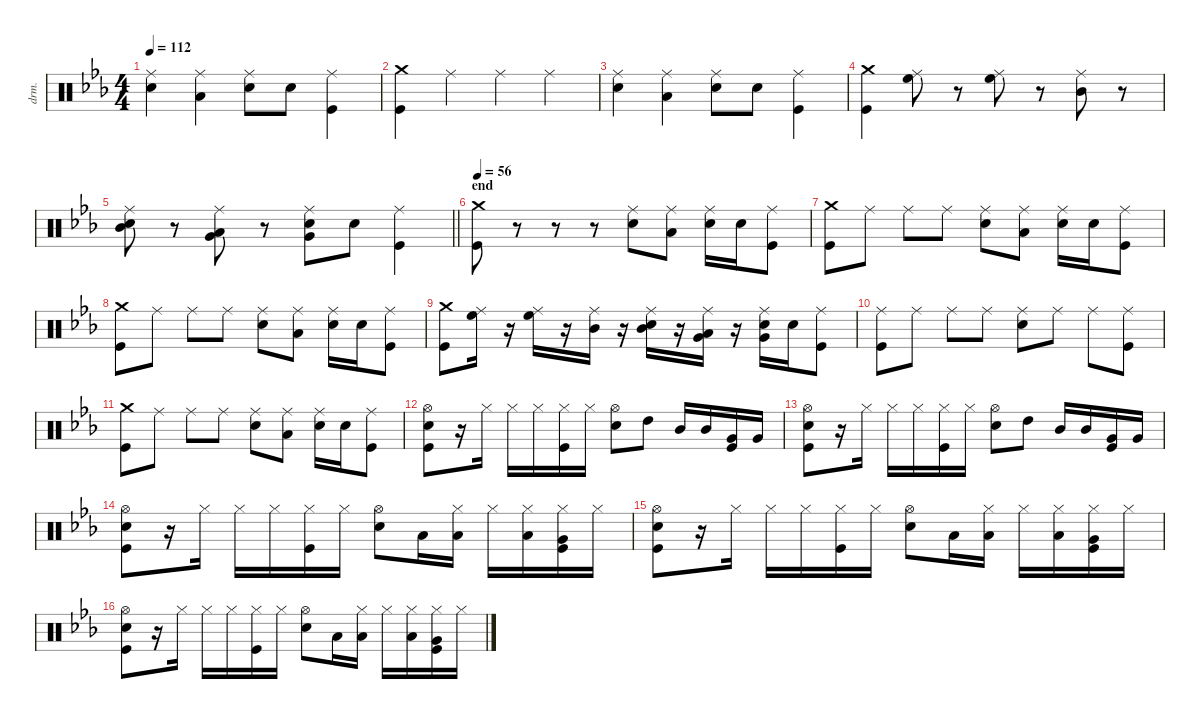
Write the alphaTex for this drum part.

\defaultSystemsLayout 4
\hideDynamics
\bracketExtendMode nobrackets
\otherSystemsTrackNameOrientation horizontal
\track ("Percussion" "drm.") {instrument percussion}
\staff {score}
\articulation defaults
\ts (4 4)
\tempo 112
\clef neutral
\ks cminor
("Snare (hit) 2"{acc forcenatural} "Ride (middle)"{acc forcenatural}).4{dy f beam Down} ("Low Floor Tom (hit)"{acc forcenatural} "Ride (middle)"{acc forcenatural}).4{beam Down} ("Snare (hit) 2"{acc forcenatural} "Ride (middle)"{acc forcenatural}).8{beam Down} "Snare (hit) 2"{acc forcenatural}.8{beam Down} ("Kick (hit)"{acc forcenatural} "Ride (middle)"{acc forcenatural}).4{beam Down} |
("Crash medium (hit)"{acc forcenatural} "Kick (hit)"{acc forcenatural}).4{beam Down} "Ride (middle)"{acc forcenatural}.4{beam Down} "Ride (middle)"{acc forcenatural}.4{beam Down} "Ride (middle)"{acc forcenatural}.4{beam Down} |
("Snare (hit) 2"{acc forcenatural} "Ride (middle)"{acc forcenatural}).4{beam Down} ("Low Floor Tom (hit)"{acc forcenatural} "Ride (middle)"{acc forcenatural}).4{beam Down} ("Snare (hit) 2"{acc forcenatural} "Ride (middle)"{acc forcenatural}).8{beam Down} "Snare (hit) 2"{acc forcenatural}.8{beam Down} ("Kick (hit)"{acc forcenatural} "Ride (middle)"{acc forcenatural}).4{beam Down} |
("Crash medium (hit)"{acc forcenatural} "Kick (hit)"{acc forcenatural}).4{beam Down} ("High Floor Tom (hit)"{acc forcenatural} "Ride (middle)"{acc forcenatural}).8{beam Down} r.8{beam Down} ("High Floor Tom (hit)"{acc forcenatural} "Ride (middle)"{acc forcenatural}).8{beam Down} r.8{beam Down} ("Mid Tom (hit)"{acc forcenatural} "Ride (middle)"{acc forcenatural}).8{beam Down} r.8{beam Down} |
\barLineRight lightlight
("Mid Tom (hit)"{acc forcenatural} "Snare (hit) 2"{acc forcenatural} "Ride (middle)"{acc forcenatural}).8{beam Down} r.8{beam Down} ("Very Low Tom (hit)"{acc forcenatural} "Low Floor Tom (hit)"{acc forcenatural} "Ride (middle)"{acc forcenatural}).8{beam Down} r.8{beam Down} ("Very Low Tom (hit)"{acc forcenatural} "Snare (hit) 2"{acc forcenatural} "Ride (middle)"{acc forcenatural}).8{beam Down} "Snare (hit) 2"{acc forcenatural}.8{beam Down} ("Kick (hit)"{acc forcenatural} "Ride (middle)"{acc forcenatural}).4{beam Down} |
\section ("" "end")
\tempo 56
("Crash medium (hit)"{acc forcenatural} "Kick (hit)"{acc forcenatural}).8{beam Down} r.8{beam Down} r.8{beam Down} r.8{beam Down} ("Snare (hit) 2"{acc forcenatural} "Ride (middle)"{acc forcenatural}).8{beam Down} ("Low Floor Tom (hit)"{acc forcenatural} "Ride (middle)"{acc forcenatural}).8{beam Down} ("Snare (hit) 2"{acc forcenatural} "Ride (middle)"{acc forcenatural}).16{beam Down} "Snare (hit) 2"{acc forcenatural}.16{beam Down} ("Kick (hit)"{acc forcenatural} "Ride (middle)"{acc forcenatural}).8{beam Down} |
("Crash medium (hit)"{acc forcenatural} "Kick (hit)"{acc forcenatural}).8{beam Down} "Ride (middle)"{acc forcenatural}.8{beam Down} "Ride (middle)"{acc forcenatural}.8{beam Down} "Ride (middle)"{acc forcenatural}.8{beam Down} ("Snare (hit) 2"{acc forcenatural} "Ride (middle)"{acc forcenatural}).8{beam Down} ("Low Floor Tom (hit)"{acc forcenatural} "Ride (middle)"{acc forcenatural}).8{beam Down} ("Snare (hit) 2"{acc forcenatural} "Ride (middle)"{acc forcenatural}).16{beam Down} "Snare (hit) 2"{acc forcenatural}.16{beam Down} ("Kick (hit)"{acc forcenatural} "Ride (middle)"{acc forcenatural}).8{beam Down} |
("Crash medium (hit)"{acc forcenatural} "Kick (hit)"{acc forcenatural}).8{beam Down} "Ride (middle)"{acc forcenatural}.8{beam Down} "Ride (middle)"{acc forcenatural}.8{beam Down} "Ride (middle)"{acc forcenatural}.8{beam Down} ("Snare (hit) 2"{acc forcenatural} "Ride (middle)"{acc forcenatural}).8{beam Down} ("Low Floor Tom (hit)"{acc forcenatural} "Ride (middle)"{acc forcenatural}).8{beam Down} ("Snare (hit) 2"{acc forcenatural} "Ride (middle)"{acc forcenatural}).16{beam Down} "Snare (hit) 2"{acc forcenatural}.16{beam Down} ("Kick (hit)"{acc forcenatural} "Ride (middle)"{acc forcenatural}).8{beam Down} |
("Crash medium (hit)"{acc forcenatural} "Kick (hit)"{acc forcenatural}).8{beam Down} ("High Floor Tom (hit)"{acc forcenatural} "Ride (middle)"{acc forcenatural}).16{beam Down} r.16{beam Down} ("High Floor Tom (hit)"{acc forcenatural} "Ride (middle)"{acc forcenatural}).16{beam Down} r.16{beam Down} ("Mid Tom (hit)"{acc forcenatural} "Ride (middle)"{acc forcenatural}).16{beam Down} r.16{beam Down} ("Mid Tom (hit)"{acc forcenatural} "Snare (hit) 2"{acc forcenatural} "Ride (middle)"{acc forcenatural}).16{beam Down} r.16{beam Down} ("Very Low Tom (hit)"{acc forcenatural} "Low Floor Tom (hit)"{acc forcenatural} "Ride (middle)"{acc forcenatural}).16{beam Down} r.16{beam Down} ("Very Low Tom (hit)"{acc forcenatural} "Snare (hit) 2"{acc forcenatural} "Ride (middle)"{acc forcenatural}).16{beam Down} "Snare (hit) 2"{acc forcenatural}.16{beam Down} ("Kick (hit)"{acc forcenatural} "Ride (middle)"{acc forcenatural}).8{beam Down} |
\ks eb
("Ride (middle)"{acc forcenatural} "Kick (hit)"{acc forcenatural}).8{beam Down} "Ride (middle)"{acc forcenatural}.8{beam Down} "Ride (middle)"{acc forcenatural}.8{beam Down} "Ride (middle)"{acc forcenatural}.8{beam Down} ("Snare (hit) 2"{acc forcenatural} "Ride (middle)"{acc forcenatural}).8{beam Down} "Ride (middle)"{acc forcenatural}.8{beam Down} "Ride (middle)"{acc forcenatural}.8{beam Down} ("Kick (hit)"{acc forcenatural} "Ride (middle)"{acc forcenatural}).8{beam Down} |
("Crash medium (hit)"{acc forcenatural} "Kick (hit)"{acc forcenatural}).8{beam Down} "Ride (middle)"{acc forcenatural}.8{beam Down} "Ride (middle)"{acc forcenatural}.8{beam Down} "Ride (middle)"{acc forcenatural}.8{beam Down} ("Snare (hit) 2"{acc forcenatural} "Ride (middle)"{acc forcenatural}).8{beam Down} ("Low Floor Tom (hit)"{acc forcenatural} "Ride (middle)"{acc forcenatural}).8{beam Down} ("Snare (hit) 2"{acc forcenatural} "Ride (middle)"{acc forcenatural}).16{beam Down} "Snare (hit) 2"{acc forcenatural}.16{beam Down} ("Kick (hit)"{acc forcenatural} "Ride (middle)"{acc forcenatural}).8{beam Down} |
("Hi-Hat (open)"{acc forcenatural} "Kick (hit)"{acc forcenatural} "Snare (hit) 2"{acc forcenatural}).8{beam Down} r.16{beam Down} "Hi-Hat (closed)"{acc forcenatural}.16{beam Down} "Hi-Hat (closed)"{acc forcenatural}.16{beam Down} "Hi-Hat (closed)"{acc forcenatural}.16{beam Down} ("Kick (hit)"{acc forcenatural} "Hi-Hat (closed)"{acc forcenatural}).16{beam Down} "Hi-Hat (closed)"{acc forcenatural}.16{beam Down} ("Snare (hit) 2"{acc forcenatural} "Hi-Hat (open)"{acc forcenatural}).8{beam Down} "High Tom (hit)"{acc forcenatural}.8{beam Down} "Mid Tom (hit)"{acc forcenatural}.16{beam Up} "Mid Tom (hit)"{acc forcenatural}.16{beam Up} ("Very Low Tom (hit)"{acc forcenatural} "Kick (hit)"{acc forcenatural}).16{beam Up} "Very Low Tom (hit)"{acc forcenatural}.16{beam Up} |
("Hi-Hat (open)"{acc forcenatural} "Kick (hit)"{acc forcenatural} "Snare (hit) 2"{acc forcenatural}).8{beam Down} r.16{beam Down} "Hi-Hat (closed)"{acc forcenatural}.16{beam Down} "Hi-Hat (closed)"{acc forcenatural}.16{beam Down} "Hi-Hat (closed)"{acc forcenatural}.16{beam Down} ("Kick (hit)"{acc forcenatural} "Hi-Hat (closed)"{acc forcenatural}).16{beam Down} "Hi-Hat (closed)"{acc forcenatural}.16{beam Down} ("Snare (hit) 2"{acc forcenatural} "Hi-Hat (open)"{acc forcenatural}).8{beam Down} "High Tom (hit)"{acc forcenatural}.8{beam Down} "Mid Tom (hit)"{acc forcenatural}.16{beam Up} "Mid Tom (hit)"{acc forcenatural}.16{beam Up} ("Very Low Tom (hit)"{acc forcenatural} "Kick (hit)"{acc forcenatural}).16{beam Up} "Very Low Tom (hit)"{acc forcenatural}.16{beam Up} |
("Hi-Hat (open)"{acc forcenatural} "Kick (hit)"{acc forcenatural} "Snare (hit) 2"{acc forcenatural}).8{beam Down} r.16{beam Down} "Hi-Hat (closed)"{acc forcenatural}.16{beam Down} "Hi-Hat (closed)"{acc forcenatural}.16{beam Down} "Hi-Hat (closed)"{acc forcenatural}.16{beam Down} ("Kick (hit)"{acc forcenatural} "Hi-Hat (closed)"{acc forcenatural}).16{beam Down} "Hi-Hat (closed)"{acc forcenatural}.16{beam Down} ("Snare (hit) 2"{acc forcenatural} "Hi-Hat (open)"{acc forcenatural}).8{beam Down} "Low Tom (hit)"{acc forcenatural}.16{beam Down} ("Low Tom (hit)"{acc forcenatural} "Hi-Hat (closed)"{acc forcenatural}).16{beam Down} "Hi-Hat (closed)"{acc forcenatural}.16{beam Down} ("Low Tom (hit)"{acc forcenatural} "Hi-Hat (closed)"{acc forcenatural}).16{beam Down} ("Very Low Tom (hit)"{acc forcenatural} "Kick (hit)"{acc forcenatural} "Hi-Hat (closed)"{acc forcenatural}).16{beam Down} "Hi-Hat (closed)"{acc forcenatural}.16{beam Down} |
("Hi-Hat (open)"{acc forcenatural} "Kick (hit)"{acc forcenatural} "Snare (hit) 2"{acc forcenatural}).8{beam Down} r.16{beam Down} "Hi-Hat (closed)"{acc forcenatural}.16{beam Down} "Hi-Hat (closed)"{acc forcenatural}.16{beam Down} "Hi-Hat (closed)"{acc forcenatural}.16{beam Down} ("Kick (hit)"{acc forcenatural} "Hi-Hat (closed)"{acc forcenatural}).16{beam Down} "Hi-Hat (closed)"{acc forcenatural}.16{beam Down} ("Snare (hit) 2"{acc forcenatural} "Hi-Hat (open)"{acc forcenatural}).8{beam Down} "Low Tom (hit)"{acc forcenatural}.16{beam Down} ("Low Tom (hit)"{acc forcenatural} "Hi-Hat (closed)"{acc forcenatural}).16{beam Down} "Hi-Hat (closed)"{acc forcenatural}.16{beam Down} ("Low Tom (hit)"{acc forcenatural} "Hi-Hat (closed)"{acc forcenatural}).16{beam Down} ("Very Low Tom (hit)"{acc forcenatural} "Kick (hit)"{acc forcenatural} "Hi-Hat (closed)"{acc forcenatural}).16{beam Down} "Hi-Hat (closed)"{acc forcenatural}.16{beam Down} |
("Hi-Hat (open)"{acc forcenatural} "Kick (hit)"{acc forcenatural} "Snare (hit) 2"{acc forcenatural}).8{beam Down} r.16{beam Down} "Hi-Hat (closed)"{acc forcenatural}.16{beam Down} "Hi-Hat (closed)"{acc forcenatural}.16{beam Down} "Hi-Hat (closed)"{acc forcenatural}.16{beam Down} ("Kick (hit)"{acc forcenatural} "Hi-Hat (closed)"{acc forcenatural}).16{beam Down} "Hi-Hat (closed)"{acc forcenatural}.16{beam Down} ("Snare (hit) 2"{acc forcenatural} "Hi-Hat (open)"{acc forcenatural}).8{beam Down} "Low Tom (hit)"{acc forcenatural}.16{beam Down} ("Low Tom (hit)"{acc forcenatural} "Hi-Hat (closed)"{acc forcenatural}).16{beam Down} "Hi-Hat (closed)"{acc forcenatural}.16{beam Down} ("Low Tom (hit)"{acc forcenatural} "Hi-Hat (closed)"{acc forcenatural}).16{beam Down} ("Very Low Tom (hit)"{acc forcenatural} "Kick (hit)"{acc forcenatural} "Hi-Hat (closed)"{acc forcenatural}).16{beam Down} "Hi-Hat (closed)"{acc forcenatural}.16{beam Down}
